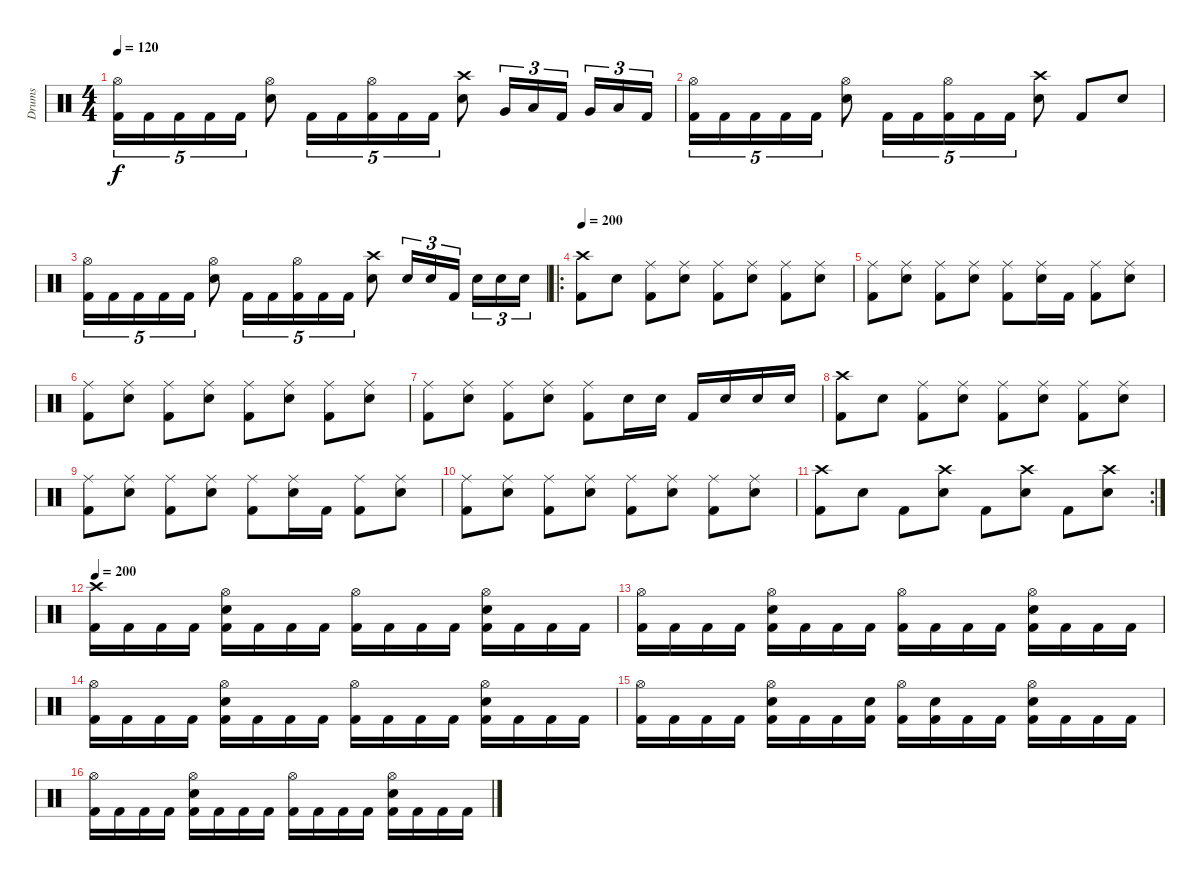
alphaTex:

\track ("Drums" "Drums") {instrument percussion}
\staff {score}
\articulation defaults
\ts (4 4)
\tempo 120
\clef neutral
\ks c
("Hi-Hat (open)" "Kick (hit) 2").16{tu (5 4) dy f} "Kick (hit) 2".16{tu (5 4)} "Kick (hit) 2".16{tu (5 4)} "Kick (hit) 2".16{tu (5 4)} "Kick (hit) 2".16{tu (5 4)} ("Hi-Hat (open)" "Electric Snare (hit)").8 "Kick (hit) 2".16{tu (5 4)} "Kick (hit) 2".16{tu (5 4)} ("Hi-Hat (open)" "Kick (hit) 2").16{tu (5 4)} "Kick (hit) 2".16{tu (5 4)} "Kick (hit) 2".16{tu (5 4)} ("Crash high (hit)" "Electric Snare (hit)").8 "Very Low Tom (hit)".16{tu (3 2)} "Low Floor Tom (hit)".16{tu (3 2)} "Kick (hit) 2".16{tu (3 2)} "Very Low Tom (hit)".16{tu (3 2)} "Low Floor Tom (hit)".16{tu (3 2)} "Kick (hit) 2".16{tu (3 2)} |
("Hi-Hat (open)" "Kick (hit) 2").16{tu (5 4)} "Kick (hit) 2".16{tu (5 4)} "Kick (hit) 2".16{tu (5 4)} "Kick (hit) 2".16{tu (5 4)} "Kick (hit) 2".16{tu (5 4)} ("Hi-Hat (open)" "Electric Snare (hit)").8 "Kick (hit) 2".16{tu (5 4)} "Kick (hit) 2".16{tu (5 4)} ("Hi-Hat (open)" "Kick (hit) 2").16{tu (5 4)} "Kick (hit) 2".16{tu (5 4)} "Kick (hit) 2".16{tu (5 4)} ("Crash high (hit)" "Electric Snare (hit)").8 "Kick (hit) 2".8 "Electric Snare (hit)".8 |
("Hi-Hat (open)" "Kick (hit) 2").16{tu (5 4)} "Kick (hit) 2".16{tu (5 4)} "Kick (hit) 2".16{tu (5 4)} "Kick (hit) 2".16{tu (5 4)} "Kick (hit) 2".16{tu (5 4)} ("Hi-Hat (open)" "Electric Snare (hit)").8 "Kick (hit) 2".16{tu (5 4)} "Kick (hit) 2".16{tu (5 4)} ("Hi-Hat (open)" "Kick (hit) 2").16{tu (5 4)} "Kick (hit) 2".16{tu (5 4)} "Kick (hit) 2".16{tu (5 4)} ("Crash high (hit)" "Electric Snare (hit)").8 "Electric Snare (hit)".16{tu (3 2)} "Electric Snare (hit)".16{tu (3 2)} "Kick (hit) 2".16{tu (3 2)} "Electric Snare (hit)".16{tu (3 2)} "Electric Snare (hit)".16{tu (3 2)} "Electric Snare (hit)".16{tu (3 2)} |
\ro
\tempo 200
("Crash high (hit)" "Kick (hit) 2").8 "Electric Snare (hit)".8 ("Ride (middle)" "Kick (hit) 2").8 ("Ride (middle)" "Electric Snare (hit)").8 ("Ride (middle)" "Kick (hit) 2").8 ("Ride (middle)" "Electric Snare (hit)").8 ("Ride (middle)" "Kick (hit) 2").8 ("Ride (middle)" "Electric Snare (hit)").8 |
("Ride (middle)" "Kick (hit) 2").8 ("Ride (middle)" "Electric Snare (hit)").8 ("Ride (middle)" "Kick (hit) 2").8 ("Ride (middle)" "Electric Snare (hit)").8 ("Ride (middle)" "Kick (hit) 2").8 ("Ride (middle)" "Electric Snare (hit)").16 "Kick (hit) 2".16 ("Ride (middle)" "Kick (hit) 2").8 ("Ride (middle)" "Electric Snare (hit)").8 |
("Ride (middle)" "Kick (hit) 2").8 ("Ride (middle)" "Electric Snare (hit)").8 ("Ride (middle)" "Kick (hit) 2").8 ("Ride (middle)" "Electric Snare (hit)").8 ("Ride (middle)" "Kick (hit) 2").8 ("Ride (middle)" "Electric Snare (hit)").8 ("Ride (middle)" "Kick (hit) 2").8 ("Ride (middle)" "Electric Snare (hit)").8 |
("Ride (middle)" "Kick (hit) 2").8 ("Ride (middle)" "Electric Snare (hit)").8 ("Ride (middle)" "Kick (hit) 2").8 ("Ride (middle)" "Electric Snare (hit)").8 ("Ride (middle)" "Kick (hit) 2").8 "Electric Snare (hit)".16 "Electric Snare (hit)".16 "Kick (hit) 2".16 "Electric Snare (hit)".16 "Electric Snare (hit)".16 "Electric Snare (hit)".16 |
("Crash high (hit)" "Kick (hit) 2").8 "Electric Snare (hit)".8 ("Ride (middle)" "Kick (hit) 2").8 ("Ride (middle)" "Electric Snare (hit)").8 ("Ride (middle)" "Kick (hit) 2").8 ("Ride (middle)" "Electric Snare (hit)").8 ("Ride (middle)" "Kick (hit) 2").8 ("Ride (middle)" "Electric Snare (hit)").8 |
("Ride (middle)" "Kick (hit) 2").8 ("Ride (middle)" "Electric Snare (hit)").8 ("Ride (middle)" "Kick (hit) 2").8 ("Ride (middle)" "Electric Snare (hit)").8 ("Ride (middle)" "Kick (hit) 2").8 ("Ride (middle)" "Electric Snare (hit)").16 "Kick (hit) 2".16 ("Ride (middle)" "Kick (hit) 2").8 ("Ride (middle)" "Electric Snare (hit)").8 |
("Ride (middle)" "Kick (hit) 2").8 ("Ride (middle)" "Electric Snare (hit)").8 ("Ride (middle)" "Kick (hit) 2").8 ("Ride (middle)" "Electric Snare (hit)").8 ("Ride (middle)" "Kick (hit) 2").8 ("Ride (middle)" "Electric Snare (hit)").8 ("Ride (middle)" "Kick (hit) 2").8 ("Ride (middle)" "Electric Snare (hit)").8 |
\rc 2
("Crash high (hit)" "Kick (hit) 2").8 "Electric Snare (hit)".8 "Kick (hit) 2".8 ("Crash high (hit)" "Electric Snare (hit)").8 "Kick (hit) 2".8 ("Crash high (hit)" "Electric Snare (hit)").8 "Kick (hit) 2".8 ("Crash high (hit)" "Electric Snare (hit)").8 |
\tempo 200
("Crash high (hit)" "Kick (hit) 2").16 "Kick (hit) 2".16 "Kick (hit) 2".16 "Kick (hit) 2".16 ("Hi-Hat (open)" "Electric Snare (hit)" "Kick (hit) 2").16 "Kick (hit) 2".16 "Kick (hit) 2".16 "Kick (hit) 2".16 ("Hi-Hat (open)" "Kick (hit) 2").16 "Kick (hit) 2".16 "Kick (hit) 2".16 "Kick (hit) 2".16 ("Hi-Hat (open)" "Electric Snare (hit)" "Kick (hit) 2").16 "Kick (hit) 2".16 "Kick (hit) 2".16 "Kick (hit) 2".16 |
("Hi-Hat (open)" "Kick (hit) 2").16 "Kick (hit) 2".16 "Kick (hit) 2".16 "Kick (hit) 2".16 ("Hi-Hat (open)" "Electric Snare (hit)" "Kick (hit) 2").16 "Kick (hit) 2".16 "Kick (hit) 2".16 "Kick (hit) 2".16 ("Hi-Hat (open)" "Kick (hit) 2").16 "Kick (hit) 2".16 "Kick (hit) 2".16 "Kick (hit) 2".16 ("Hi-Hat (open)" "Electric Snare (hit)" "Kick (hit) 2").16 "Kick (hit) 2".16 "Kick (hit) 2".16 "Kick (hit) 2".16 |
("Hi-Hat (open)" "Kick (hit) 2").16 "Kick (hit) 2".16 "Kick (hit) 2".16 "Kick (hit) 2".16 ("Hi-Hat (open)" "Electric Snare (hit)" "Kick (hit) 2").16 "Kick (hit) 2".16 "Kick (hit) 2".16 "Kick (hit) 2".16 ("Hi-Hat (open)" "Kick (hit) 2").16 "Kick (hit) 2".16 "Kick (hit) 2".16 "Kick (hit) 2".16 ("Hi-Hat (open)" "Electric Snare (hit)" "Kick (hit) 2").16 "Kick (hit) 2".16 "Kick (hit) 2".16 "Kick (hit) 2".16 |
("Hi-Hat (open)" "Kick (hit) 2").16 "Kick (hit) 2".16 "Kick (hit) 2".16 "Kick (hit) 2".16 ("Hi-Hat (open)" "Electric Snare (hit)" "Kick (hit) 2").16 "Kick (hit) 2".16 "Kick (hit) 2".16 ("Electric Snare (hit)" "Kick (hit) 2").16 ("Hi-Hat (open)" "Kick (hit) 2").16 ("Electric Snare (hit)" "Kick (hit) 2").16 "Kick (hit) 2".16 "Kick (hit) 2".16 ("Hi-Hat (open)" "Electric Snare (hit)" "Kick (hit) 2").16 "Kick (hit) 2".16 "Kick (hit) 2".16 "Kick (hit) 2".16 |
("Hi-Hat (open)" "Kick (hit) 2").16 "Kick (hit) 2".16 "Kick (hit) 2".16 "Kick (hit) 2".16 ("Hi-Hat (open)" "Electric Snare (hit)" "Kick (hit) 2").16 "Kick (hit) 2".16 "Kick (hit) 2".16 "Kick (hit) 2".16 ("Hi-Hat (open)" "Kick (hit) 2").16 "Kick (hit) 2".16 "Kick (hit) 2".16 "Kick (hit) 2".16 ("Hi-Hat (open)" "Electric Snare (hit)" "Kick (hit) 2").16 "Kick (hit) 2".16 "Kick (hit) 2".16 "Kick (hit) 2".16
